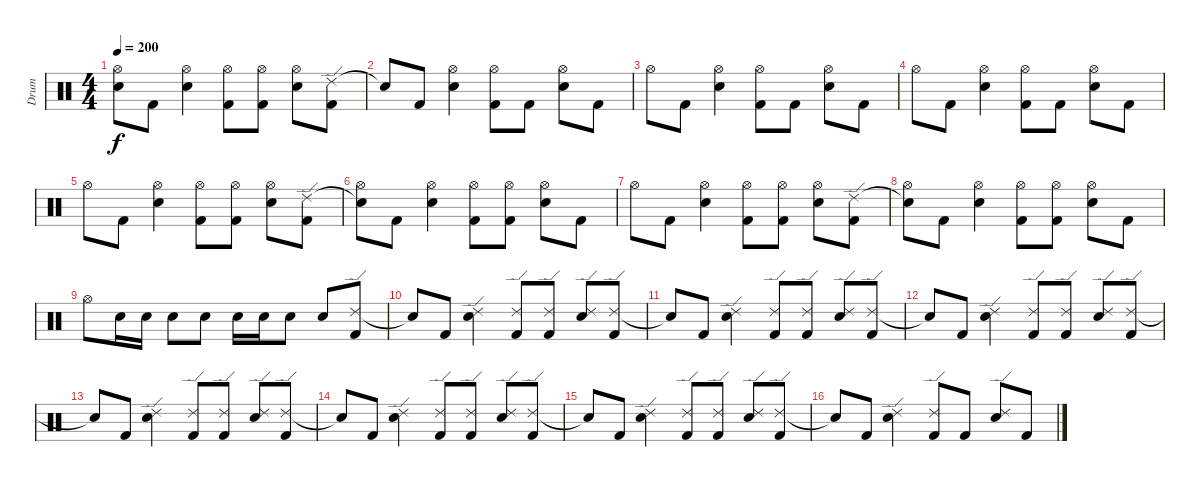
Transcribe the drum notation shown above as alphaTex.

\track ("Drum" "Drum") {instrument percussion}
\staff {score}
\articulation defaults
\ts (4 4)
\tempo 200
\clef neutral
\ks c
("Snare (hit)"{t} "Hi-Hat (open)").8{dy f} "Kick (hit) 2".8 ("Hi-Hat (open)" "Electric Snare (hit)").4 ("Hi-Hat (open)" "Kick (hit) 2").8 ("Hi-Hat (open)" "Kick (hit) 2").8 ("Hi-Hat (open)" "Electric Snare (hit)").8 ("Ride (edge) 2" "Kick (hit) 2").8 |
"Snare (hit)"{t}.8 "Kick (hit) 2".8 ("Hi-Hat (open)" "Electric Snare (hit)").4 ("Hi-Hat (open)" "Kick (hit) 2").8 "Kick (hit) 2".8 ("Hi-Hat (open)" "Electric Snare (hit)").8 "Kick (hit) 2".8 |
"Hi-Hat (open)".8 "Kick (hit) 2".8 ("Hi-Hat (open)" "Electric Snare (hit)").4 ("Hi-Hat (open)" "Kick (hit) 2").8 "Kick (hit) 2".8 ("Hi-Hat (open)" "Electric Snare (hit)").8 "Kick (hit) 2".8 |
"Hi-Hat (open)".8 "Kick (hit) 2".8 ("Hi-Hat (open)" "Electric Snare (hit)").4 ("Hi-Hat (open)" "Kick (hit) 2").8 "Kick (hit) 2".8 ("Hi-Hat (open)" "Electric Snare (hit)").8 "Kick (hit) 2".8 |
"Hi-Hat (open)".8 "Kick (hit) 2".8 ("Hi-Hat (open)" "Electric Snare (hit)").4 ("Hi-Hat (open)" "Kick (hit) 2").8 ("Hi-Hat (open)" "Kick (hit) 2").8 ("Hi-Hat (open)" "Electric Snare (hit)").8 ("Ride (edge) 2" "Kick (hit) 2").8 |
("Snare (hit)"{t} "Hi-Hat (open)").8 "Kick (hit) 2".8 ("Hi-Hat (open)" "Electric Snare (hit)").4 ("Hi-Hat (open)" "Kick (hit) 2").8 ("Hi-Hat (open)" "Kick (hit) 2").8 ("Hi-Hat (open)" "Electric Snare (hit)").8 "Kick (hit) 2".8 |
"Hi-Hat (open)".8 "Kick (hit) 2".8 ("Hi-Hat (open)" "Electric Snare (hit)").4 ("Hi-Hat (open)" "Kick (hit) 2").8 ("Hi-Hat (open)" "Kick (hit) 2").8 ("Hi-Hat (open)" "Electric Snare (hit)").8 ("Ride (edge) 2" "Kick (hit) 2").8 |
("Snare (hit)"{t} "Hi-Hat (open)").8 "Kick (hit) 2".8 ("Hi-Hat (open)" "Electric Snare (hit)").4 ("Hi-Hat (open)" "Kick (hit) 2").8 ("Hi-Hat (open)" "Kick (hit) 2").8 ("Hi-Hat (open)" "Electric Snare (hit)").8 "Kick (hit) 2".8 |
"Hi-Hat (open)".8 "Electric Snare (hit)".16 "Electric Snare (hit)".16 "Electric Snare (hit)".8 "Electric Snare (hit)".8 "Electric Snare (hit)".16 "Electric Snare (hit)".16 "Electric Snare (hit)".8 "Electric Snare (hit)".8 ("Ride (edge) 2" "Kick (hit) 2").8 |
"Snare (hit)"{t}.8 "Kick (hit) 2".8 ("Ride (edge) 2" "Electric Snare (hit)").4 ("Ride (edge) 2" "Kick (hit) 2").8 ("Ride (edge) 2" "Kick (hit) 2").8 ("Ride (edge) 2" "Electric Snare (hit)").8 ("Ride (edge) 2" "Kick (hit) 2").8 |
"Snare (hit)"{t}.8 "Kick (hit) 2".8 ("Ride (edge) 2" "Electric Snare (hit)").4 ("Ride (edge) 2" "Kick (hit) 2").8 ("Ride (edge) 2" "Kick (hit) 2").8 ("Ride (edge) 2" "Electric Snare (hit)").8 ("Ride (edge) 2" "Kick (hit) 2").8 |
"Snare (hit)"{t}.8 "Kick (hit) 2".8 ("Ride (edge) 2" "Electric Snare (hit)").4 ("Ride (edge) 2" "Kick (hit) 2").8 ("Ride (edge) 2" "Kick (hit) 2").8 ("Ride (edge) 2" "Electric Snare (hit)").8 ("Ride (edge) 2" "Kick (hit) 2").8 |
"Snare (hit)"{t}.8 "Kick (hit) 2".8 ("Ride (edge) 2" "Electric Snare (hit)").4 ("Ride (edge) 2" "Kick (hit) 2").8 ("Ride (edge) 2" "Kick (hit) 2").8 ("Ride (edge) 2" "Electric Snare (hit)").8 ("Ride (edge) 2" "Kick (hit) 2").8 |
"Snare (hit)"{t}.8 "Kick (hit) 2".8 ("Ride (edge) 2" "Electric Snare (hit)").4 ("Ride (edge) 2" "Kick (hit) 2").8 ("Ride (edge) 2" "Kick (hit) 2").8 ("Ride (edge) 2" "Electric Snare (hit)").8 ("Ride (edge) 2" "Kick (hit) 2").8 |
"Snare (hit)"{t}.8 "Kick (hit) 2".8 ("Ride (edge) 2" "Electric Snare (hit)").4 ("Ride (edge) 2" "Kick (hit) 2").8 ("Ride (edge) 2" "Kick (hit) 2").8 ("Ride (edge) 2" "Electric Snare (hit)").8 ("Ride (edge) 2" "Kick (hit) 2").8 |
"Snare (hit)"{t}.8 "Kick (hit) 2".8 ("Ride (edge) 2" "Electric Snare (hit)").4 ("Ride (edge) 2" "Kick (hit) 2").8 "Kick (hit) 2".8 ("Ride (edge) 2" "Electric Snare (hit)").8 "Kick (hit) 2".8
